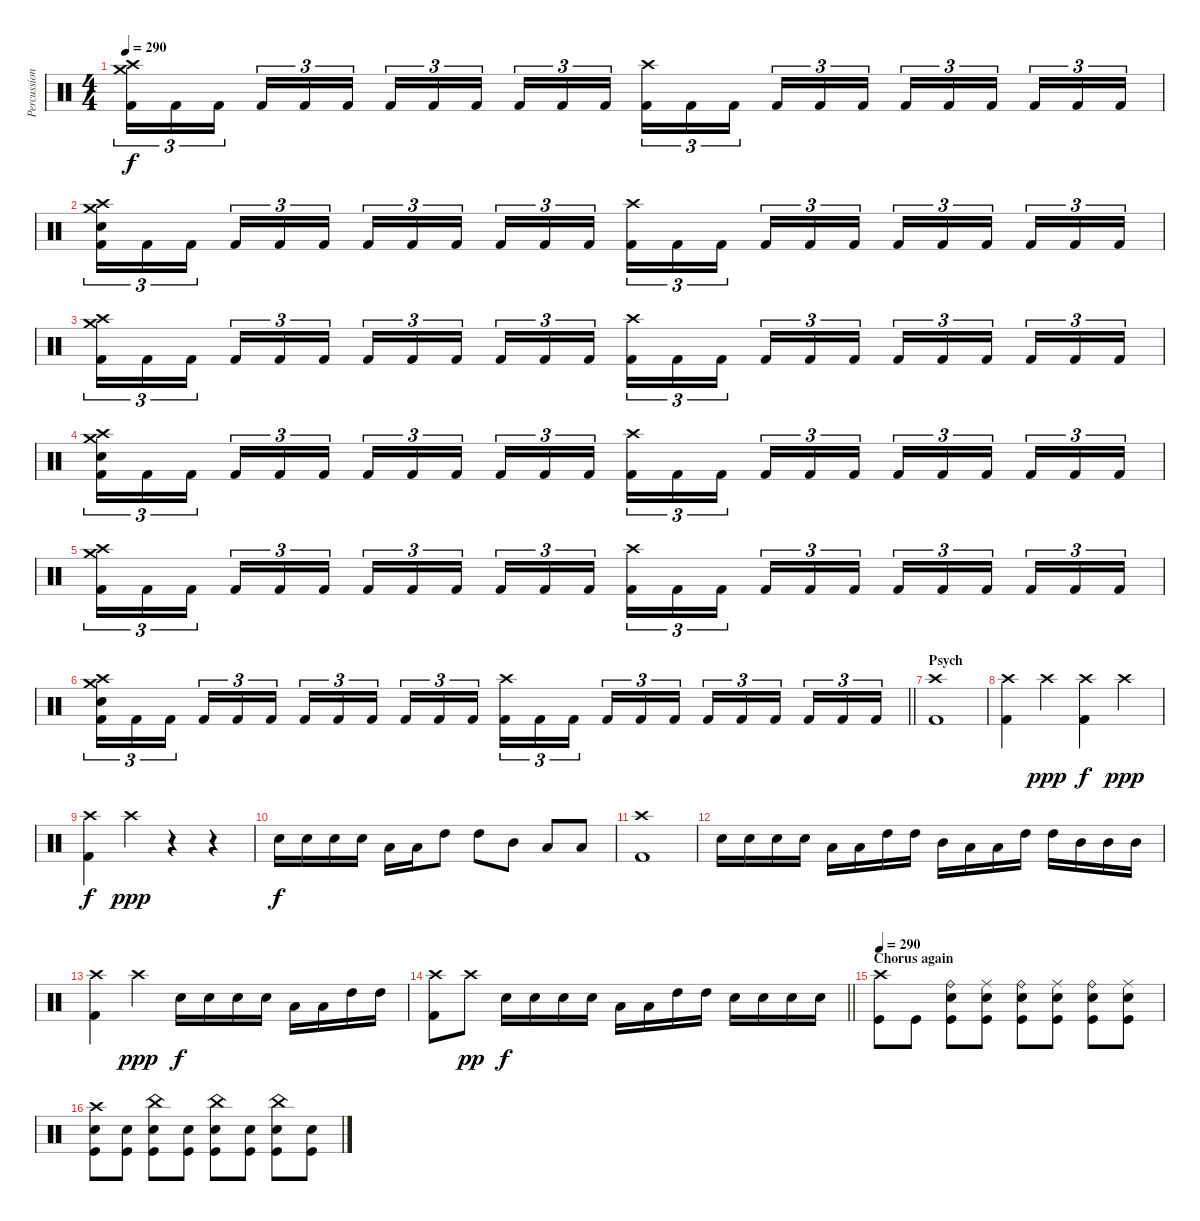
\track ("Percussion" "Percussion") {instrument percussion}
\staff {score}
\articulation defaults
\ts (4 4)
\tempo 290
\clef neutral
\ks c
("Crash high (hit)" "Crash medium (hit)" "Kick (hit) 2").16{tu (3 2) dy f} "Kick (hit) 2".16{tu (3 2)} "Kick (hit) 2".16{tu (3 2) beam splitsecondary} "Kick (hit) 2".16{tu (3 2)} "Kick (hit) 2".16{tu (3 2)} "Kick (hit) 2".16{tu (3 2)} "Kick (hit) 2".16{tu (3 2)} "Kick (hit) 2".16{tu (3 2)} "Kick (hit) 2".16{tu (3 2) beam splitsecondary} "Kick (hit) 2".16{tu (3 2)} "Kick (hit) 2".16{tu (3 2)} "Kick (hit) 2".16{tu (3 2)} ("Crash high (hit)" "Kick (hit) 2").16{tu (3 2)} "Kick (hit) 2".16{tu (3 2)} "Kick (hit) 2".16{tu (3 2) beam splitsecondary} "Kick (hit) 2".16{tu (3 2)} "Kick (hit) 2".16{tu (3 2)} "Kick (hit) 2".16{tu (3 2)} "Kick (hit) 2".16{tu (3 2)} "Kick (hit) 2".16{tu (3 2)} "Kick (hit) 2".16{tu (3 2) beam splitsecondary} "Kick (hit) 2".16{tu (3 2)} "Kick (hit) 2".16{tu (3 2)} "Kick (hit) 2".16{tu (3 2)} |
("Crash high (hit)" "Crash medium (hit)" "Electric Snare (hit)" "Kick (hit) 2").16{tu (3 2)} "Kick (hit) 2".16{tu (3 2)} "Kick (hit) 2".16{tu (3 2) beam splitsecondary} "Kick (hit) 2".16{tu (3 2)} "Kick (hit) 2".16{tu (3 2)} "Kick (hit) 2".16{tu (3 2)} "Kick (hit) 2".16{tu (3 2)} "Kick (hit) 2".16{tu (3 2)} "Kick (hit) 2".16{tu (3 2) beam splitsecondary} "Kick (hit) 2".16{tu (3 2)} "Kick (hit) 2".16{tu (3 2)} "Kick (hit) 2".16{tu (3 2)} ("Crash high (hit)" "Kick (hit) 2").16{tu (3 2)} "Kick (hit) 2".16{tu (3 2)} "Kick (hit) 2".16{tu (3 2) beam splitsecondary} "Kick (hit) 2".16{tu (3 2)} "Kick (hit) 2".16{tu (3 2)} "Kick (hit) 2".16{tu (3 2)} "Kick (hit) 2".16{tu (3 2)} "Kick (hit) 2".16{tu (3 2)} "Kick (hit) 2".16{tu (3 2) beam splitsecondary} "Kick (hit) 2".16{tu (3 2)} "Kick (hit) 2".16{tu (3 2)} "Kick (hit) 2".16{tu (3 2)} |
("Crash high (hit)" "Crash medium (hit)" "Kick (hit) 2").16{tu (3 2)} "Kick (hit) 2".16{tu (3 2)} "Kick (hit) 2".16{tu (3 2) beam splitsecondary} "Kick (hit) 2".16{tu (3 2)} "Kick (hit) 2".16{tu (3 2)} "Kick (hit) 2".16{tu (3 2)} "Kick (hit) 2".16{tu (3 2)} "Kick (hit) 2".16{tu (3 2)} "Kick (hit) 2".16{tu (3 2) beam splitsecondary} "Kick (hit) 2".16{tu (3 2)} "Kick (hit) 2".16{tu (3 2)} "Kick (hit) 2".16{tu (3 2)} ("Crash high (hit)" "Kick (hit) 2").16{tu (3 2)} "Kick (hit) 2".16{tu (3 2)} "Kick (hit) 2".16{tu (3 2) beam splitsecondary} "Kick (hit) 2".16{tu (3 2)} "Kick (hit) 2".16{tu (3 2)} "Kick (hit) 2".16{tu (3 2)} "Kick (hit) 2".16{tu (3 2)} "Kick (hit) 2".16{tu (3 2)} "Kick (hit) 2".16{tu (3 2) beam splitsecondary} "Kick (hit) 2".16{tu (3 2)} "Kick (hit) 2".16{tu (3 2)} "Kick (hit) 2".16{tu (3 2)} |
("Crash high (hit)" "Crash medium (hit)" "Electric Snare (hit)" "Kick (hit) 2").16{tu (3 2)} "Kick (hit) 2".16{tu (3 2)} "Kick (hit) 2".16{tu (3 2) beam splitsecondary} "Kick (hit) 2".16{tu (3 2)} "Kick (hit) 2".16{tu (3 2)} "Kick (hit) 2".16{tu (3 2)} "Kick (hit) 2".16{tu (3 2)} "Kick (hit) 2".16{tu (3 2)} "Kick (hit) 2".16{tu (3 2) beam splitsecondary} "Kick (hit) 2".16{tu (3 2)} "Kick (hit) 2".16{tu (3 2)} "Kick (hit) 2".16{tu (3 2)} ("Crash high (hit)" "Kick (hit) 2").16{tu (3 2)} "Kick (hit) 2".16{tu (3 2)} "Kick (hit) 2".16{tu (3 2) beam splitsecondary} "Kick (hit) 2".16{tu (3 2)} "Kick (hit) 2".16{tu (3 2)} "Kick (hit) 2".16{tu (3 2)} "Kick (hit) 2".16{tu (3 2)} "Kick (hit) 2".16{tu (3 2)} "Kick (hit) 2".16{tu (3 2) beam splitsecondary} "Kick (hit) 2".16{tu (3 2)} "Kick (hit) 2".16{tu (3 2)} "Kick (hit) 2".16{tu (3 2)} |
("Crash high (hit)" "Crash medium (hit)" "Kick (hit) 2").16{tu (3 2)} "Kick (hit) 2".16{tu (3 2)} "Kick (hit) 2".16{tu (3 2) beam splitsecondary} "Kick (hit) 2".16{tu (3 2)} "Kick (hit) 2".16{tu (3 2)} "Kick (hit) 2".16{tu (3 2)} "Kick (hit) 2".16{tu (3 2)} "Kick (hit) 2".16{tu (3 2)} "Kick (hit) 2".16{tu (3 2) beam splitsecondary} "Kick (hit) 2".16{tu (3 2)} "Kick (hit) 2".16{tu (3 2)} "Kick (hit) 2".16{tu (3 2)} ("Crash high (hit)" "Kick (hit) 2").16{tu (3 2)} "Kick (hit) 2".16{tu (3 2)} "Kick (hit) 2".16{tu (3 2) beam splitsecondary} "Kick (hit) 2".16{tu (3 2)} "Kick (hit) 2".16{tu (3 2)} "Kick (hit) 2".16{tu (3 2)} "Kick (hit) 2".16{tu (3 2)} "Kick (hit) 2".16{tu (3 2)} "Kick (hit) 2".16{tu (3 2) beam splitsecondary} "Kick (hit) 2".16{tu (3 2)} "Kick (hit) 2".16{tu (3 2)} "Kick (hit) 2".16{tu (3 2)} |
\barLineRight lightlight
("Crash high (hit)" "Crash medium (hit)" "Electric Snare (hit)" "Kick (hit) 2").16{tu (3 2)} "Kick (hit) 2".16{tu (3 2)} "Kick (hit) 2".16{tu (3 2) beam splitsecondary} "Kick (hit) 2".16{tu (3 2)} "Kick (hit) 2".16{tu (3 2)} "Kick (hit) 2".16{tu (3 2)} "Kick (hit) 2".16{tu (3 2)} "Kick (hit) 2".16{tu (3 2)} "Kick (hit) 2".16{tu (3 2) beam splitsecondary} "Kick (hit) 2".16{tu (3 2)} "Kick (hit) 2".16{tu (3 2)} "Kick (hit) 2".16{tu (3 2)} ("Crash high (hit)" "Kick (hit) 2").16{tu (3 2)} "Kick (hit) 2".16{tu (3 2)} "Kick (hit) 2".16{tu (3 2) beam splitsecondary} "Kick (hit) 2".16{tu (3 2)} "Kick (hit) 2".16{tu (3 2)} "Kick (hit) 2".16{tu (3 2)} "Kick (hit) 2".16{tu (3 2)} "Kick (hit) 2".16{tu (3 2)} "Kick (hit) 2".16{tu (3 2) beam splitsecondary} "Kick (hit) 2".16{tu (3 2)} "Kick (hit) 2".16{tu (3 2)} "Kick (hit) 2".16{tu (3 2)} |
\section ("" "Psych")
("Crash high (hit)" "Kick (hit) 2").1 |
("Crash high (hit)" "Kick (hit) 2").4 "Crash high (hit)".4{dy ppp} ("Crash high (hit)" "Kick (hit) 2").4{dy f} "Crash high (hit)".4{dy ppp} |
("Crash high (hit)" "Kick (hit) 2").4{dy f} "Crash high (hit)".4{dy ppp} r.4 r.4 |
"Electric Snare (hit)".16{dy f} "Electric Snare (hit)".16 "Electric Snare (hit)".16 "Electric Snare (hit)".16 "Low Tom (hit)".16 "Low Tom (hit)".16 "High Tom (hit)".8 "High Tom (hit)".8 "Mid Tom (hit)".8 "Low Tom (hit)".8 "Low Tom (hit)".8 |
("Crash high (hit)" "Kick (hit) 2").1 |
"Electric Snare (hit)".16 "Electric Snare (hit)".16 "Electric Snare (hit)".16 "Electric Snare (hit)".16 "Low Tom (hit)".16 "Low Tom (hit)".16 "High Tom (hit)".16 "High Tom (hit)".16 "Mid Tom (hit)".16 "Low Tom (hit)".16 "Low Tom (hit)".16 "High Tom (hit)".16 "High Tom (hit)".16 "Mid Tom (hit)".16 "Mid Tom (hit)".16 "Mid Tom (hit)".16 |
("Crash high (hit)" "Kick (hit) 2").4 "Crash high (hit)".4{dy ppp} "Electric Snare (hit)".16{dy f} "Electric Snare (hit)".16 "Electric Snare (hit)".16 "Electric Snare (hit)".16 "Low Tom (hit)".16 "Low Tom (hit)".16 "High Tom (hit)".16 "High Tom (hit)".16 |
\barLineRight lightlight
("Crash high (hit)" "Kick (hit) 2").8 "Crash high (hit)".8{dy pp} "Electric Snare (hit)".16{dy f} "Electric Snare (hit)".16 "Electric Snare (hit)".16 "Electric Snare (hit)".16 "Low Tom (hit)".16 "Low Tom (hit)".16 "High Tom (hit)".16 "High Tom (hit)".16 "Electric Snare (hit)".16 "Electric Snare (hit)".16 "Electric Snare (hit)".16 "Electric Snare (hit)".16 |
\section ("" "Chorus again")
\tempo 290
("Crash high (hit)" "Kick (hit)").8 "Kick (hit)".8 ("Electric Snare (hit)" "Ride (bell)" "Kick (hit)").8 ("Electric Snare (hit)" "Ride (middle)" "Kick (hit)").8 ("Electric Snare (hit)" "Ride (bell)" "Kick (hit)").8 ("Electric Snare (hit)" "Ride (middle)" "Kick (hit)").8 ("Electric Snare (hit)" "Ride (bell)" "Kick (hit)").8 ("Electric Snare (hit)" "Ride (middle)" "Kick (hit)").8 |
("Electric Snare (hit)" "Crash high (hit)" "Kick (hit)").8 ("Electric Snare (hit)" "Kick (hit)").8 ("Electric Snare (hit)" "China (hit)" "Kick (hit)").8 ("Electric Snare (hit)" "Kick (hit)").8 ("Electric Snare (hit)" "China (hit)" "Kick (hit)").8 ("Electric Snare (hit)" "Kick (hit)").8 ("Electric Snare (hit)" "China (hit)" "Kick (hit)").8 ("Electric Snare (hit)" "Kick (hit)").8
